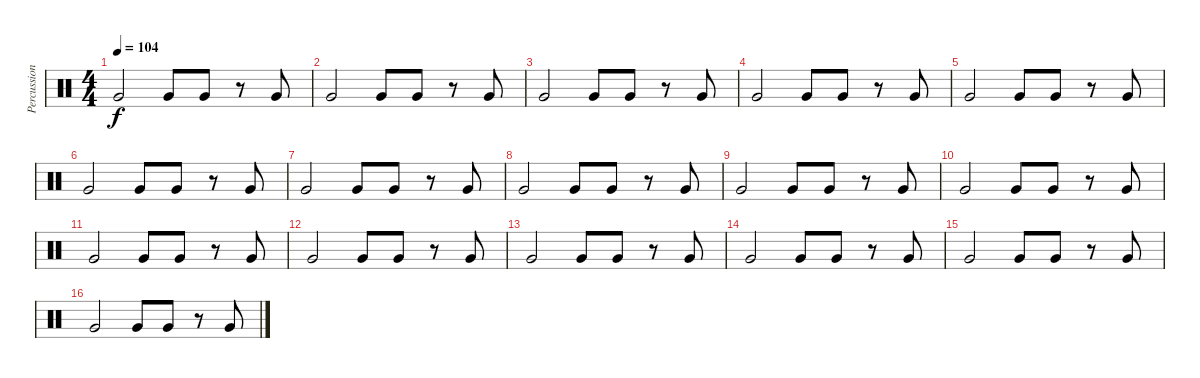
\track ("Percussions" "Percussion") {instrument percussion}
\staff {score}
\articulation defaults
\ts (4 4)
\tempo 104
\clef neutral
\ks c "Very Low Tom (hit)".2{dy f} "Very Low Tom (hit)".8 "Very Low Tom (hit)".8
r.8 "Very Low Tom (hit)".8 |
"Very Low Tom (hit)".2 "Very Low Tom (hit)".8 "Very Low Tom (hit)".8 r.8 "Very Low Tom (hit)".8 |
"Very Low Tom (hit)".2 "Very Low Tom (hit)".8 "Very Low Tom (hit)".8 r.8 "Very Low Tom (hit)".8 |
"Very Low Tom (hit)".2 "Very Low Tom (hit)".8 "Very Low Tom (hit)".8 r.8 "Very Low Tom (hit)".8 |
"Very Low Tom (hit)".2 "Very Low Tom (hit)".8 "Very Low Tom (hit)".8 r.8 "Very Low Tom (hit)".8 |
"Very Low Tom (hit)".2 "Very Low Tom (hit)".8 "Very Low Tom (hit)".8 r.8 "Very Low Tom (hit)".8 |
"Very Low Tom (hit)".2 "Very Low Tom (hit)".8 "Very Low Tom (hit)".8 r.8 "Very Low Tom (hit)".8 |
"Very Low Tom (hit)".2 "Very Low Tom (hit)".8 "Very Low Tom (hit)".8 r.8 "Very Low Tom (hit)".8 |
"Very Low Tom (hit)".2 "Very Low Tom (hit)".8 "Very Low Tom (hit)".8 r.8 "Very Low Tom (hit)".8 |
"Very Low Tom (hit)".2 "Very Low Tom (hit)".8 "Very Low Tom (hit)".8 r.8 "Very Low Tom (hit)".8 |
"Very Low Tom (hit)".2 "Very Low Tom (hit)".8 "Very Low Tom (hit)".8 r.8 "Very Low Tom (hit)".8 |
"Very Low Tom (hit)".2 "Very Low Tom (hit)".8 "Very Low Tom (hit)".8 r.8 "Very Low Tom (hit)".8 |
"Very Low Tom (hit)".2 "Very Low Tom (hit)".8 "Very Low Tom (hit)".8 r.8 "Very Low Tom (hit)".8 |
"Very Low Tom (hit)".2 "Very Low Tom (hit)".8 "Very Low Tom (hit)".8 r.8 "Very Low Tom (hit)".8 |
"Very Low Tom (hit)".2 "Very Low Tom (hit)".8 "Very Low Tom (hit)".8 r.8 "Very Low Tom (hit)".8 |
"Very Low Tom (hit)".2 "Very Low Tom (hit)".8 "Very Low Tom (hit)".8 r.8 "Very Low Tom (hit)".8
